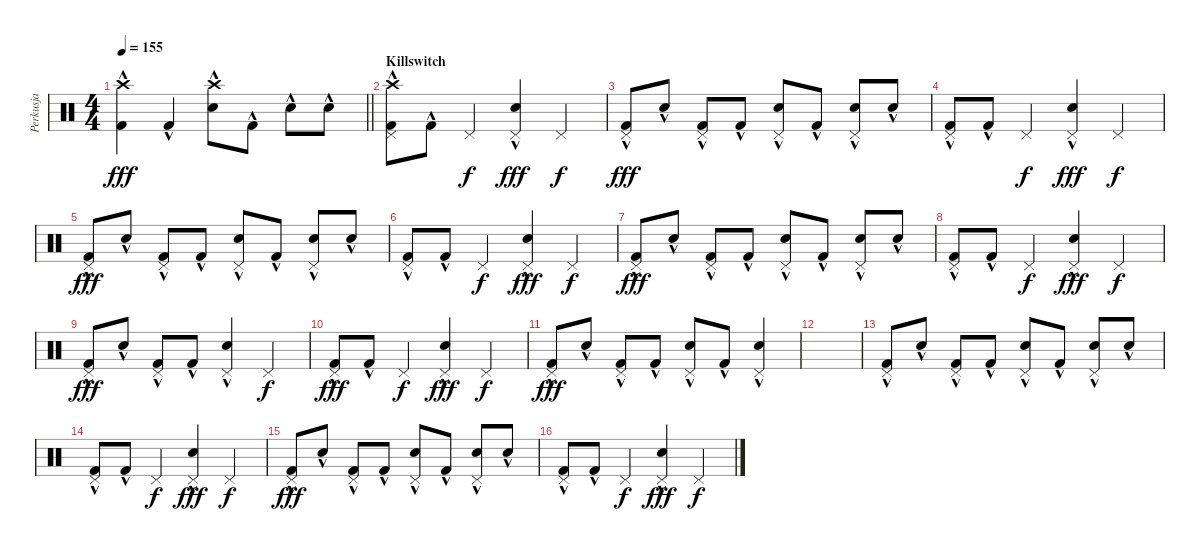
\track ("Perkusja" "Perkusja") {instrument percussion}
\staff {score}
\articulation defaults
\ts (4 4)
\tempo 155
\clef neutral
\barLineRight lightlight
\ks c
("Crash high (hit)" "Kick (hit) 2"{hac}).4{dy fff} "Kick (hit) 2"{hac}.4 ("Crash high (hit)" "Electric Snare (hit)"{hac}).8 "Kick (hit) 2"{hac}.8 "Electric Snare (hit)"{hac}.8 "Electric Snare (hit)"{hac}.8 |
\section ("" "Killswitch")
("Crash high (hit)" "Pedal Hi-Hat (hit)" "Kick (hit) 2"{hac}).8 "Kick (hit) 2"{hac}.8 "Pedal Hi-Hat (hit)".4{dy f} ("Pedal Hi-Hat (hit)" "Electric Snare (hit)"{hac}).4{dy fff} "Pedal Hi-Hat (hit)".4{dy f} |
("Pedal Hi-Hat (hit)" "Kick (hit) 2"{hac}).8{dy fff} "Electric Snare (hit)"{hac}.8 ("Pedal Hi-Hat (hit)" "Kick (hit) 2"{hac}).8 "Kick (hit) 2"{hac}.8 ("Pedal Hi-Hat (hit)" "Electric Snare (hit)"{hac}).8 "Kick (hit) 2"{hac}.8 ("Pedal Hi-Hat (hit)" "Electric Snare (hit)"{hac}).8 "Electric Snare (hit)"{hac}.8 |
("Pedal Hi-Hat (hit)" "Kick (hit) 2"{hac}).8 "Kick (hit) 2"{hac}.8 "Pedal Hi-Hat (hit)".4{dy f} ("Pedal Hi-Hat (hit)" "Electric Snare (hit)"{hac}).4{dy fff} "Pedal Hi-Hat (hit)".4{dy f} |
("Pedal Hi-Hat (hit)" "Kick (hit) 2"{hac}).8{dy fff} "Electric Snare (hit)"{hac}.8 ("Pedal Hi-Hat (hit)" "Kick (hit) 2"{hac}).8 "Kick (hit) 2"{hac}.8 ("Pedal Hi-Hat (hit)" "Electric Snare (hit)"{hac}).8 "Kick (hit) 2"{hac}.8 ("Pedal Hi-Hat (hit)" "Electric Snare (hit)"{hac}).8 "Electric Snare (hit)"{hac}.8 |
("Pedal Hi-Hat (hit)" "Kick (hit) 2"{hac}).8 "Kick (hit) 2"{hac}.8 "Pedal Hi-Hat (hit)".4{dy f} ("Pedal Hi-Hat (hit)" "Electric Snare (hit)"{hac}).4{dy fff} "Pedal Hi-Hat (hit)".4{dy f} |
("Pedal Hi-Hat (hit)" "Kick (hit) 2"{hac}).8{dy fff} "Electric Snare (hit)"{hac}.8 ("Pedal Hi-Hat (hit)" "Kick (hit) 2"{hac}).8 "Kick (hit) 2"{hac}.8 ("Pedal Hi-Hat (hit)" "Electric Snare (hit)"{hac}).8 "Kick (hit) 2"{hac}.8 ("Pedal Hi-Hat (hit)" "Electric Snare (hit)"{hac}).8 "Electric Snare (hit)"{hac}.8 |
("Pedal Hi-Hat (hit)" "Kick (hit) 2"{hac}).8 "Kick (hit) 2"{hac}.8 "Pedal Hi-Hat (hit)".4{dy f} ("Pedal Hi-Hat (hit)" "Electric Snare (hit)"{hac}).4{dy fff} "Pedal Hi-Hat (hit)".4{dy f} |
("Pedal Hi-Hat (hit)" "Kick (hit) 2"{hac}).8{dy fff} "Electric Snare (hit)"{hac}.8 ("Pedal Hi-Hat (hit)" "Kick (hit) 2"{hac}).8 "Kick (hit) 2"{hac}.8 ("Pedal Hi-Hat (hit)" "Electric Snare (hit)"{hac}).4 "Pedal Hi-Hat (hit)".4{dy f} |
("Pedal Hi-Hat (hit)" "Kick (hit) 2"{hac}).8{dy fff} "Kick (hit) 2"{hac}.8 "Pedal Hi-Hat (hit)".4{dy f} ("Pedal Hi-Hat (hit)" "Electric Snare (hit)"{hac}).4{dy fff} "Pedal Hi-Hat (hit)".4{dy f} |
("Pedal Hi-Hat (hit)" "Kick (hit) 2"{hac}).8{dy fff} "Electric Snare (hit)"{hac}.8 ("Pedal Hi-Hat (hit)" "Kick (hit) 2"{hac}).8 "Kick (hit) 2"{hac}.8 ("Pedal Hi-Hat (hit)" "Electric Snare (hit)"{hac}).8 "Kick (hit) 2"{hac}.8 ("Pedal Hi-Hat (hit)" "Electric Snare (hit)"{hac}).4 |
|
("Pedal Hi-Hat (hit)" "Kick (hit) 2"{hac}).8 "Electric Snare (hit)"{hac}.8 ("Pedal Hi-Hat (hit)" "Kick (hit) 2"{hac}).8 "Kick (hit) 2"{hac}.8 ("Pedal Hi-Hat (hit)" "Electric Snare (hit)"{hac}).8 "Kick (hit) 2"{hac}.8 ("Pedal Hi-Hat (hit)" "Electric Snare (hit)"{hac}).8 "Electric Snare (hit)"{hac}.8 |
("Pedal Hi-Hat (hit)" "Kick (hit) 2"{hac}).8 "Kick (hit) 2"{hac}.8 "Pedal Hi-Hat (hit)".4{dy f} ("Pedal Hi-Hat (hit)" "Electric Snare (hit)"{hac}).4{dy fff} "Pedal Hi-Hat (hit)".4{dy f} |
("Pedal Hi-Hat (hit)" "Kick (hit) 2"{hac}).8{dy fff} "Electric Snare (hit)"{hac}.8 ("Pedal Hi-Hat (hit)" "Kick (hit) 2"{hac}).8 "Kick (hit) 2"{hac}.8 ("Pedal Hi-Hat (hit)" "Electric Snare (hit)"{hac}).8 "Kick (hit) 2"{hac}.8 ("Pedal Hi-Hat (hit)" "Electric Snare (hit)"{hac}).8 "Electric Snare (hit)"{hac}.8 |
("Pedal Hi-Hat (hit)" "Kick (hit) 2"{hac}).8 "Kick (hit) 2"{hac}.8 "Pedal Hi-Hat (hit)".4{dy f} ("Pedal Hi-Hat (hit)" "Electric Snare (hit)"{hac}).4{dy fff} "Pedal Hi-Hat (hit)".4{dy f}
